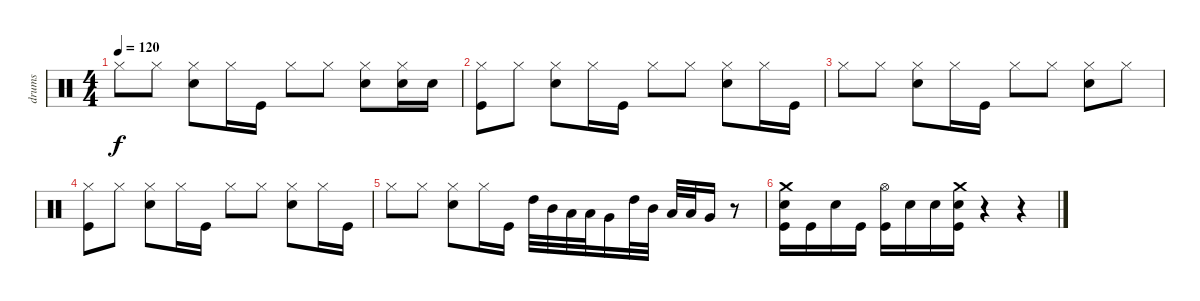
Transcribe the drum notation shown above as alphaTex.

\track ("drums" "drums") {instrument percussion}
\staff {score}
\articulation defaults
\ts (4 4)
\tempo 120
\clef neutral
\ks c "Hi-Hat (closed)".8{dy f} "Hi-Hat (closed)".8
("Hi-Hat (closed)" "Snare (hit) 2").8 "Hi-Hat (closed)".16 "Kick (hit)".16 "Hi-Hat (closed)".8 "Hi-Hat (closed)".8 ("Hi-Hat (closed)" "Snare (hit) 2").8 ("Hi-Hat (closed)" "Snare (hit) 2").16 "Snare (hit) 2".16 |
("Hi-Hat (closed)" "Kick (hit)").8 "Hi-Hat (closed)".8 ("Hi-Hat (closed)" "Snare (hit) 2").8 "Hi-Hat (closed)".16 "Kick (hit)".16 "Hi-Hat (closed)".8 "Hi-Hat (closed)".8 ("Hi-Hat (closed)" "Snare (hit) 2").8 "Hi-Hat (closed)".16 "Kick (hit)".16 |
"Hi-Hat (closed)".8 "Hi-Hat (closed)".8 ("Hi-Hat (closed)" "Snare (hit) 2").8 "Hi-Hat (closed)".16 "Kick (hit)".16 "Hi-Hat (closed)".8 "Hi-Hat (closed)".8 ("Hi-Hat (closed)" "Snare (hit) 2").8 "Hi-Hat (closed)".8 |
("Hi-Hat (closed)" "Kick (hit)").8 "Hi-Hat (closed)".8 ("Hi-Hat (closed)" "Snare (hit) 2").8 "Hi-Hat (closed)".16 "Kick (hit)".16 "Hi-Hat (closed)".8 "Hi-Hat (closed)".8 ("Hi-Hat (closed)" "Snare (hit) 2").8 "Hi-Hat (closed)".16 "Kick (hit)".16 |
"Hi-Hat (closed)".8 "Hi-Hat (closed)".8 ("Hi-Hat (closed)" "Snare (hit) 2").8 "Hi-Hat (closed)".16 "Kick (hit)".16 "High Tom (hit)".32 "Mid Tom (hit)".32 "Low Tom (hit)".32 "Low Tom (hit)".32 "Very Low Tom (hit)".16 "High Tom (hit)".32 "Mid Tom (hit)".32 "Low Tom (hit)".32 "Low Tom (hit)".32 "Very Low Tom (hit)".16 r.8 |
("Crash medium (hit)" "Snare (hit) 2" "Kick (hit)").16 "Kick (hit)".16 "Snare (hit) 2".16 "Kick (hit)".16 ("Hi-Hat (open)" "Kick (hit)").16 "Snare (hit) 2".16 "Snare (hit) 2".16 ("Crash medium (hit)" "Snare (hit) 2" "Kick (hit)").16 r.4 r.4
